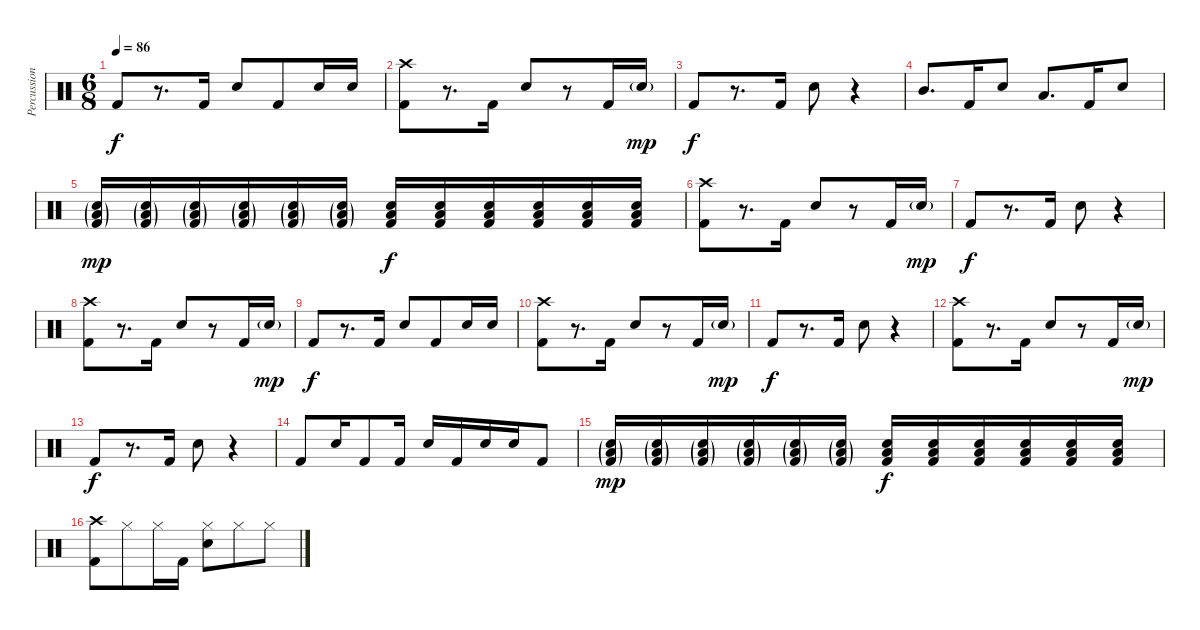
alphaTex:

\track ("Percussion" "Percussion") {instrument percussion}
\staff {score}
\articulation defaults
\ts (6 8)
\tempo 86
\clef neutral
\ks c "Kick (hit) 2".8{dy f}
r.8{d} "Kick (hit) 2".16 "Snare (hit) 2".8 "Kick (hit) 2".8 "Snare (hit) 2".16 "Snare (hit) 2".16 |
("Crash high (hit)" "Kick (hit) 2").8 r.8{d} "Kick (hit) 2".16 "Snare (hit) 2".8 r.8 "Kick (hit) 2".16 "Snare (hit) 2"{g}.16{dy mp} |
"Kick (hit) 2".8{dy f} r.8{d} "Kick (hit) 2".16 "Snare (hit) 2".8 r.4 |
"Mid Tom (hit)".8{d} "Kick (hit) 2".16 "Snare (hit) 2".8 "Low Tom (hit)".8{d} "Kick (hit) 2".16 "Snare (hit) 2".8 |
("Low Floor Tom (hit)"{g} "Snare (hit) 2"{g} "Kick (hit) 2"{g}).16{dy mp} ("Low Floor Tom (hit)"{g} "Snare (hit) 2"{g} "Kick (hit) 2"{g}).16 ("Low Floor Tom (hit)"{g} "Snare (hit) 2"{g} "Kick (hit) 2"{g}).16 ("Low Floor Tom (hit)"{g} "Snare (hit) 2"{g} "Kick (hit) 2"{g}).16 ("Low Floor Tom (hit)"{g} "Snare (hit) 2"{g} "Kick (hit) 2"{g}).16 ("Low Floor Tom (hit)"{g} "Snare (hit) 2"{g} "Kick (hit) 2"{g}).16 ("Low Floor Tom (hit)" "Snare (hit) 2" "Kick (hit) 2").16{dy f} ("Low Floor Tom (hit)" "Snare (hit) 2" "Kick (hit) 2").16 ("Low Floor Tom (hit)" "Snare (hit) 2" "Kick (hit) 2").16 ("Low Floor Tom (hit)" "Snare (hit) 2" "Kick (hit) 2").16 ("Low Floor Tom (hit)" "Snare (hit) 2" "Kick (hit) 2").16 ("Low Floor Tom (hit)" "Snare (hit) 2" "Kick (hit) 2").16 |
("Crash high (hit)" "Kick (hit) 2").8 r.8{d} "Kick (hit) 2".16 "Snare (hit) 2".8 r.8 "Kick (hit) 2".16 "Snare (hit) 2"{g}.16{dy mp} |
"Kick (hit) 2".8{dy f} r.8{d} "Kick (hit) 2".16 "Snare (hit) 2".8 r.4 |
("Crash high (hit)" "Kick (hit) 2").8 r.8{d} "Kick (hit) 2".16 "Snare (hit) 2".8 r.8 "Kick (hit) 2".16 "Snare (hit) 2"{g}.16{dy mp} |
"Kick (hit) 2".8{dy f} r.8{d} "Kick (hit) 2".16 "Snare (hit) 2".8 "Kick (hit) 2".8 "Snare (hit) 2".16 "Snare (hit) 2".16 |
("Crash high (hit)" "Kick (hit) 2").8 r.8{d} "Kick (hit) 2".16 "Snare (hit) 2".8 r.8 "Kick (hit) 2".16 "Snare (hit) 2"{g}.16{dy mp} |
"Kick (hit) 2".8{dy f} r.8{d} "Kick (hit) 2".16 "Snare (hit) 2".8 r.4 |
("Crash high (hit)" "Kick (hit) 2").8 r.8{d} "Kick (hit) 2".16 "Snare (hit) 2".8 r.8 "Kick (hit) 2".16 "Snare (hit) 2"{g}.16{dy mp} |
"Kick (hit) 2".8{dy f} r.8{d} "Kick (hit) 2".16 "Snare (hit) 2".8 r.4 |
"Kick (hit) 2".8 "Snare (hit) 2".16 "Kick (hit) 2".8 "Kick (hit) 2".16 "Snare (hit) 2".16 "Kick (hit) 2".16 "Snare (hit) 2".16 "Snare (hit) 2".16 "Kick (hit) 2".8 |
("Low Floor Tom (hit)"{g} "Snare (hit) 2"{g} "Kick (hit) 2"{g}).16{dy mp} ("Low Floor Tom (hit)"{g} "Snare (hit) 2"{g} "Kick (hit) 2"{g}).16 ("Low Floor Tom (hit)"{g} "Snare (hit) 2"{g} "Kick (hit) 2"{g}).16 ("Low Floor Tom (hit)"{g} "Snare (hit) 2"{g} "Kick (hit) 2"{g}).16 ("Low Floor Tom (hit)"{g} "Snare (hit) 2"{g} "Kick (hit) 2"{g}).16 ("Low Floor Tom (hit)"{g} "Snare (hit) 2"{g} "Kick (hit) 2"{g}).16 ("Low Floor Tom (hit)" "Snare (hit) 2" "Kick (hit) 2").16{dy f} ("Low Floor Tom (hit)" "Snare (hit) 2" "Kick (hit) 2").16 ("Low Floor Tom (hit)" "Snare (hit) 2" "Kick (hit) 2").16 ("Low Floor Tom (hit)" "Snare (hit) 2" "Kick (hit) 2").16 ("Low Floor Tom (hit)" "Snare (hit) 2" "Kick (hit) 2").16 ("Low Floor Tom (hit)" "Snare (hit) 2" "Kick (hit) 2").16 |
("Crash high (hit)" "Kick (hit) 2").8 "Hi-Hat (closed)".8 "Hi-Hat (closed)".16 "Kick (hit) 2".16 ("Hi-Hat (closed)" "Snare (hit) 2").8 "Hi-Hat (closed)".8 "Hi-Hat (closed)".8
